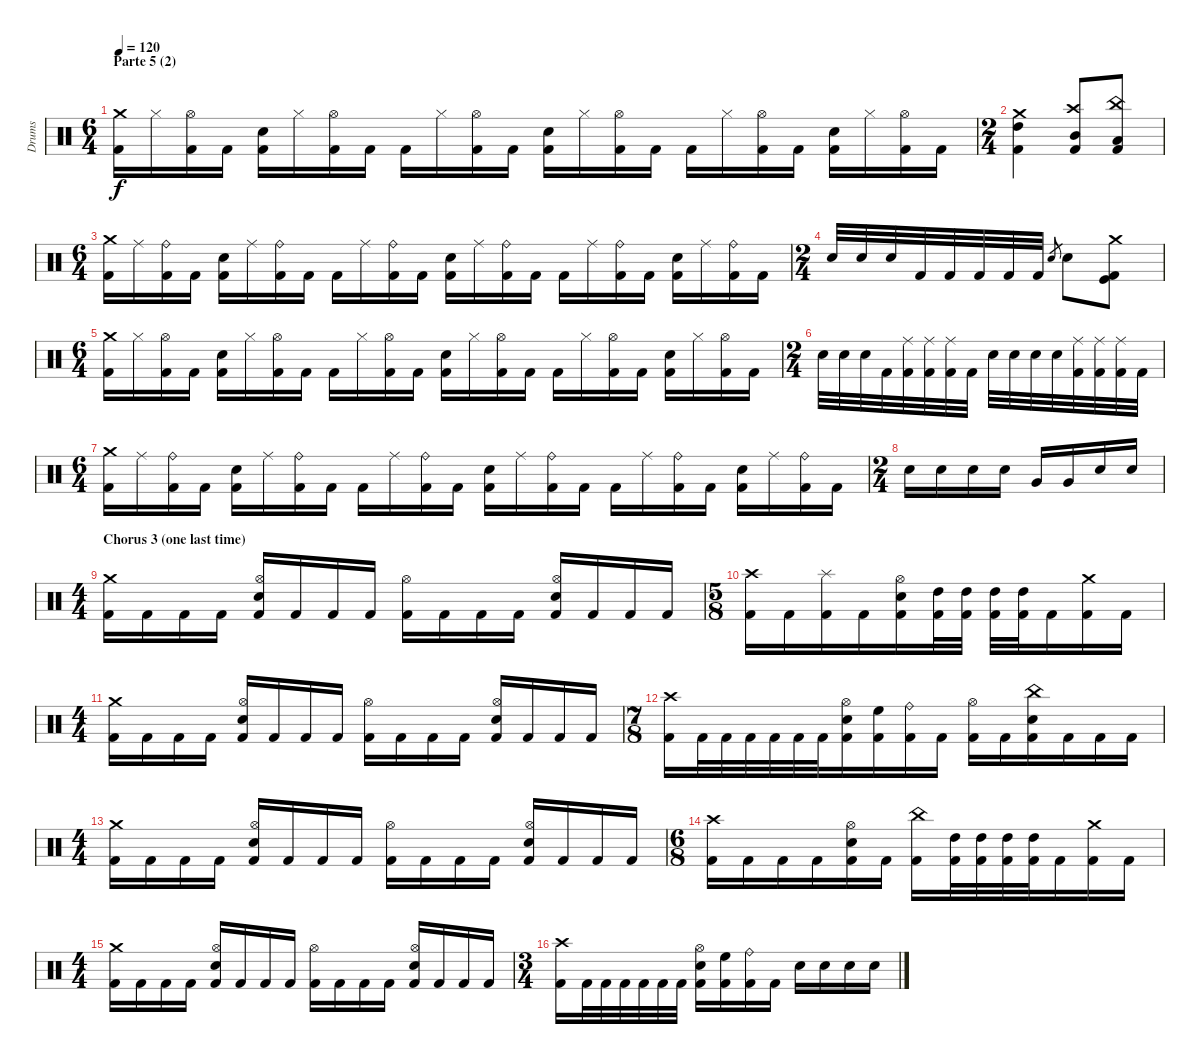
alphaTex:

\track ("Drums" "Drums") {instrument percussion}
\staff {score}
\articulation defaults
\ts (6 4)
\section ("" "Parte 5 (2)")
\tempo 120
\clef neutral
\ks c
("Crash medium (hit)" "Kick (hit) 2").16{dy f} "Hi-Hat (closed)".16 ("Hi-Hat (open)" "Kick (hit) 2").16 "Kick (hit) 2".16 ("Electric Snare (hit)" "Kick (hit) 2").16 "Hi-Hat (closed)".16 ("Hi-Hat (open)" "Kick (hit) 2").16 "Kick (hit) 2".16 "Kick (hit) 2".16 "Hi-Hat (closed)".16 ("Hi-Hat (open)" "Kick (hit) 2").16 "Kick (hit) 2".16 ("Electric Snare (hit)" "Kick (hit) 2").16 "Hi-Hat (closed)".16 ("Hi-Hat (open)" "Kick (hit) 2").16 "Kick (hit) 2".16 "Kick (hit) 2".16 "Hi-Hat (closed)".16 ("Hi-Hat (open)" "Kick (hit) 2").16 "Kick (hit) 2".16 ("Electric Snare (hit)" "Kick (hit) 2").16 "Hi-Hat (closed)".16 ("Hi-Hat (open)" "Kick (hit) 2").16 "Kick (hit) 2".16 |
\ts (2 4)
("Crash medium (hit)" "High Tom (hit)" "Kick (hit) 2").4 ("Crash high (hit)" "Mid Tom (hit)" "Kick (hit) 2").8 ("China (hit)" "Low Tom (hit)" "Kick (hit) 2").8 |
\ts (6 4)
("Crash medium (hit)" "Kick (hit) 2").16 "Ride (middle)".16 ("Ride (bell)" "Kick (hit) 2").16 "Kick (hit) 2".16 ("Electric Snare (hit)" "Kick (hit) 2").16 "Ride (middle)".16 ("Ride (bell)" "Kick (hit) 2").16 "Kick (hit) 2".16 "Kick (hit) 2".16 "Ride (middle)".16 ("Ride (bell)" "Kick (hit) 2").16 "Kick (hit) 2".16 ("Electric Snare (hit)" "Kick (hit) 2").16 "Ride (middle)".16 ("Ride (bell)" "Kick (hit) 2").16 "Kick (hit) 2".16 "Kick (hit) 2".16 "Ride (middle)".16 ("Ride (bell)" "Kick (hit) 2").16 "Kick (hit) 2".16 ("Electric Snare (hit)" "Kick (hit) 2").16 "Ride (middle)".16 ("Ride (bell)" "Kick (hit) 2").16 "Kick (hit) 2".16 |
\ts (2 4)
"Electric Snare (hit)".32 "Electric Snare (hit)".32 "Electric Snare (hit)".32 "Kick (hit) 2".32 "Kick (hit) 2".32 "Kick (hit) 2".32 "Kick (hit) 2".32 "Kick (hit) 2".32 "Electric Snare (hit)".8{gr} "Electric Snare (hit)".8 ("Crash medium (hit)" "Kick (hit) 2" "Kick (hit)").8 |
\ts (6 4)
("Crash medium (hit)" "Kick (hit) 2").16 "Hi-Hat (closed)".16 ("Hi-Hat (open)" "Kick (hit) 2").16 "Kick (hit) 2".16 ("Electric Snare (hit)" "Kick (hit) 2").16 "Hi-Hat (closed)".16 ("Hi-Hat (open)" "Kick (hit) 2").16 "Kick (hit) 2".16 "Kick (hit) 2".16 "Hi-Hat (closed)".16 ("Hi-Hat (open)" "Kick (hit) 2").16 "Kick (hit) 2".16 ("Electric Snare (hit)" "Kick (hit) 2").16 "Hi-Hat (closed)".16 ("Hi-Hat (open)" "Kick (hit) 2").16 "Kick (hit) 2".16 "Kick (hit) 2".16 "Hi-Hat (closed)".16 ("Hi-Hat (open)" "Kick (hit) 2").16 "Kick (hit) 2".16 ("Electric Snare (hit)" "Kick (hit) 2").16 "Hi-Hat (closed)".16 ("Hi-Hat (open)" "Kick (hit) 2").16 "Kick (hit) 2".16 |
\ts (2 4)
"Electric Snare (hit)".32 "Electric Snare (hit)".32 "Electric Snare (hit)".32 "Kick (hit) 2".32 ("Ride (middle)" "Kick (hit) 2").32 ("Ride (middle)" "Kick (hit) 2").32 ("Ride (middle)" "Kick (hit) 2").32 "Kick (hit) 2".32 "Electric Snare (hit)".32 "Electric Snare (hit)".32 "Electric Snare (hit)".32 "Electric Snare (hit)".32 ("Ride (middle)" "Kick (hit) 2").32 ("Ride (middle)" "Kick (hit) 2").32 ("Ride (middle)" "Kick (hit) 2").32 "Kick (hit) 2".32 |
\ts (6 4)
("Crash medium (hit)" "Kick (hit) 2").16 "Ride (middle)".16 ("Ride (bell)" "Kick (hit) 2").16 "Kick (hit) 2".16 ("Electric Snare (hit)" "Kick (hit) 2").16 "Ride (middle)".16 ("Ride (bell)" "Kick (hit) 2").16 "Kick (hit) 2".16 "Kick (hit) 2".16 "Ride (middle)".16 ("Ride (bell)" "Kick (hit) 2").16 "Kick (hit) 2".16 ("Electric Snare (hit)" "Kick (hit) 2").16 "Ride (middle)".16 ("Ride (bell)" "Kick (hit) 2").16 "Kick (hit) 2".16 "Kick (hit) 2".16 "Ride (middle)".16 ("Ride (bell)" "Kick (hit) 2").16 "Kick (hit) 2".16 ("Electric Snare (hit)" "Kick (hit) 2").16 "Ride (middle)".16 ("Ride (bell)" "Kick (hit) 2").16 "Kick (hit) 2".16 |
\ts (2 4)
"Electric Snare (hit)".16 "Electric Snare (hit)".16 "Electric Snare (hit)".16 "Electric Snare (hit)".16 "Very Low Tom (hit)".16 "Very Low Tom (hit)".16 "Electric Snare (hit)".16 "Electric Snare (hit)".16 |
\ts (4 4)
\section ("" "Chorus 3 (one last time)")
("Crash medium (hit)" "Kick (hit) 2").16 "Kick (hit) 2".16 "Kick (hit) 2".16 "Kick (hit) 2".16 ("Hi-Hat (open)" "Electric Snare (hit)" "Kick (hit) 2").16 "Kick (hit) 2".16 "Kick (hit) 2".16 "Kick (hit) 2".16 ("Hi-Hat (open)" "Kick (hit) 2").16 "Kick (hit) 2".16 "Kick (hit) 2".16 "Kick (hit) 2".16 ("Hi-Hat (open)" "Electric Snare (hit)" "Kick (hit) 2").16 "Kick (hit) 2".16 "Kick (hit) 2".16 "Kick (hit) 2".16 |
\ts (5 8)
("Crash high (hit)" "Kick (hit) 2").16 "Kick (hit) 2".16 ("Splash (hit)" "Kick (hit) 2").16 "Kick (hit) 2".16 ("Hi-Hat (open)" "Electric Snare (hit)" "Kick (hit) 2").16 ("High Tom (hit)" "Kick (hit) 2").32 ("High Tom (hit)" "Kick (hit) 2").32 ("High Tom (hit)" "Kick (hit) 2").32 ("High Tom (hit)" "Kick (hit) 2").32 "Kick (hit) 2".16 ("Crash medium (hit)" "Kick (hit) 2").16 "Kick (hit) 2".16 |
\ts (4 4)
("Crash medium (hit)" "Kick (hit) 2").16 "Kick (hit) 2".16 "Kick (hit) 2".16 "Kick (hit) 2".16 ("Hi-Hat (open)" "Electric Snare (hit)" "Kick (hit) 2").16 "Kick (hit) 2".16 "Kick (hit) 2".16 "Kick (hit) 2".16 ("Hi-Hat (open)" "Kick (hit) 2").16 "Kick (hit) 2".16 "Kick (hit) 2".16 "Kick (hit) 2".16 ("Hi-Hat (open)" "Electric Snare (hit)" "Kick (hit) 2").16 "Kick (hit) 2".16 "Kick (hit) 2".16 "Kick (hit) 2".16 |
\ts (7 8)
("Crash high (hit)" "Kick (hit) 2").16 "Kick (hit) 2".32 "Kick (hit) 2".32 "Kick (hit) 2".32 "Kick (hit) 2".32 "Kick (hit) 2".32 "Kick (hit) 2".32 ("Hi-Hat (open)" "Electric Snare (hit)" "Kick (hit) 2").16 ("High Floor Tom (hit)" "Kick (hit) 2").16 ("Ride (bell)" "Kick (hit) 2").16 "Kick (hit) 2".16 ("Hi-Hat (open)" "Kick (hit) 2").16 "Kick (hit) 2".16 ("China (hit)" "Electric Snare (hit)" "Kick (hit) 2").16 "Kick (hit) 2".16 "Kick (hit) 2".16 "Kick (hit) 2".16 |
\ts (4 4)
("Crash medium (hit)" "Kick (hit) 2").16 "Kick (hit) 2".16 "Kick (hit) 2".16 "Kick (hit) 2".16 ("Hi-Hat (open)" "Electric Snare (hit)" "Kick (hit) 2").16 "Kick (hit) 2".16 "Kick (hit) 2".16 "Kick (hit) 2".16 ("Hi-Hat (open)" "Kick (hit) 2").16 "Kick (hit) 2".16 "Kick (hit) 2".16 "Kick (hit) 2".16 ("Hi-Hat (open)" "Electric Snare (hit)" "Kick (hit) 2").16 "Kick (hit) 2".16 "Kick (hit) 2".16 "Kick (hit) 2".16 |
\ts (6 8)
("Crash high (hit)" "Kick (hit) 2").16 "Kick (hit) 2".16 "Kick (hit) 2".16 "Kick (hit) 2".16 ("Hi-Hat (open)" "Electric Snare (hit)" "Kick (hit) 2").16 "Kick (hit) 2".16 ("China (hit)" "Kick (hit) 2").16 ("High Tom (hit)" "Kick (hit) 2").32 ("High Tom (hit)" "Kick (hit) 2").32 ("High Tom (hit)" "Kick (hit) 2").32 ("High Tom (hit)" "Kick (hit) 2").32 "Kick (hit) 2".16 ("Crash medium (hit)" "Kick (hit) 2").16 "Kick (hit) 2".16 |
\ts (4 4)
("Crash medium (hit)" "Kick (hit) 2").16 "Kick (hit) 2".16 "Kick (hit) 2".16 "Kick (hit) 2".16 ("Hi-Hat (open)" "Electric Snare (hit)" "Kick (hit) 2").16 "Kick (hit) 2".16 "Kick (hit) 2".16 "Kick (hit) 2".16 ("Hi-Hat (open)" "Kick (hit) 2").16 "Kick (hit) 2".16 "Kick (hit) 2".16 "Kick (hit) 2".16 ("Hi-Hat (open)" "Electric Snare (hit)" "Kick (hit) 2").16 "Kick (hit) 2".16 "Kick (hit) 2".16 "Kick (hit) 2".16 |
\ts (3 4)
("Crash high (hit)" "Kick (hit) 2").16 "Kick (hit) 2".32 "Kick (hit) 2".32 "Kick (hit) 2".32 "Kick (hit) 2".32 "Kick (hit) 2".32 "Kick (hit) 2".32 ("Hi-Hat (open)" "Electric Snare (hit)" "Kick (hit) 2").16 ("High Floor Tom (hit)" "Kick (hit) 2").16 ("Ride (bell)" "Kick (hit) 2").16 "Kick (hit) 2".16 "Electric Snare (hit)".16 "Electric Snare (hit)".16 "Electric Snare (hit)".16 "Electric Snare (hit)".16
